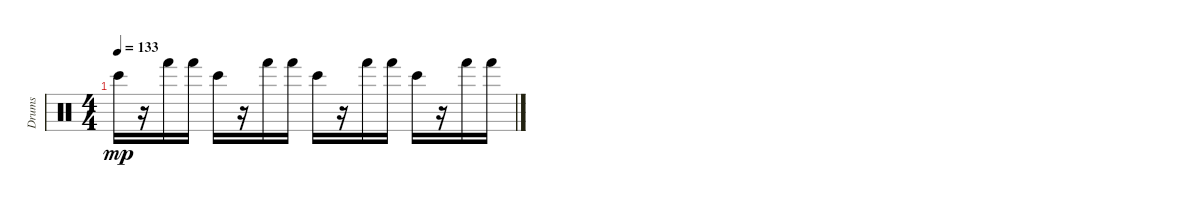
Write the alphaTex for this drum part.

\track ("Drums" "Drums") {instrument percussion}
\staff {score}
\articulation defaults
\ts (4 4)
\tempo 133
\clef neutral
\ks c "Bongo High (hit)".16{dy mp volume 7}
r.16 "Hand (hit)".16{volume 6} "Hand (hit)".16{volume 6} "Bongo High (hit)".16{volume 5} r.16 "Hand (hit)".16{volume 4} "Hand (hit)".16{volume 4} "Bongo High (hit)".16{volume 4} r.16 "Hand (hit)".16{volume 2} "Hand (hit)".16{volume 2} "Bongo High (hit)".16{volume 1} r.16 "Hand (hit)".16{volume 0} "Hand (hit)".16
